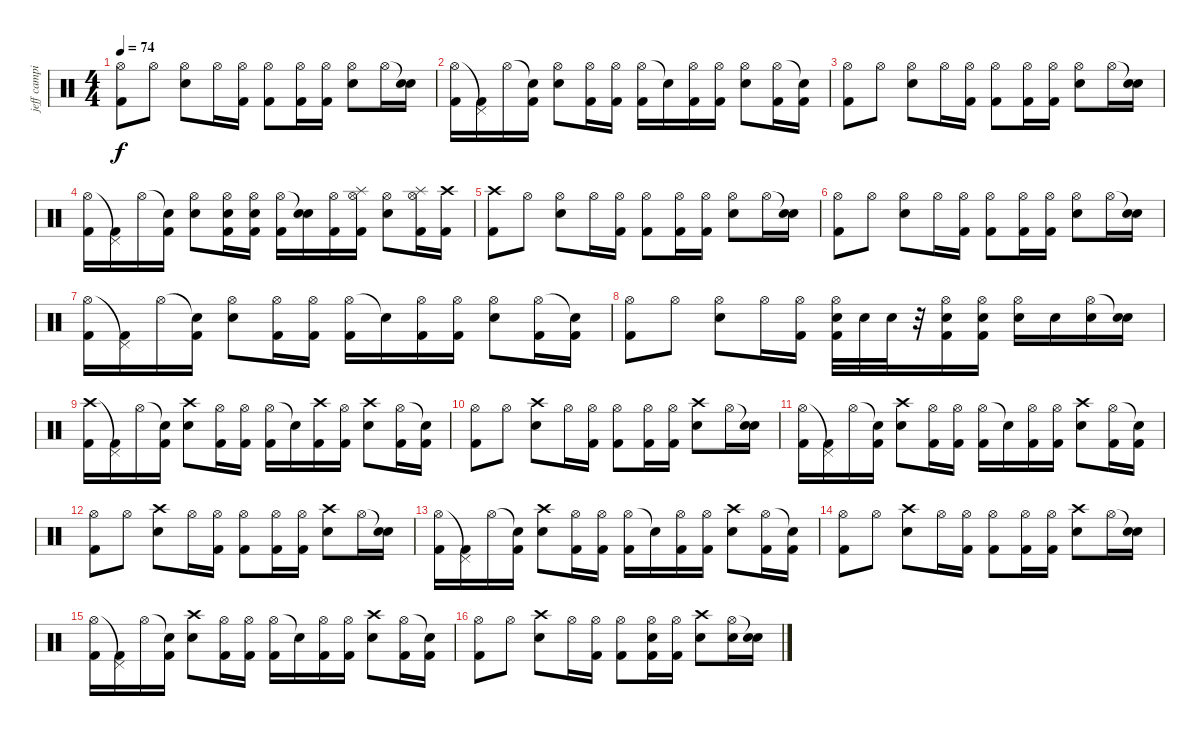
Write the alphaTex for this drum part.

\track ("jeff campitelli" "jeff campi") {instrument percussion}
\staff {score}
\articulation defaults
\ts (4 4)
\tempo 74
\clef neutral
\ks c
("Hi-Hat (open)" "Kick (hit) 2").8{dy f} "Hi-Hat (open)".8 ("Hi-Hat (open)" "Electric Snare (hit)").8 "Hi-Hat (open)".16 ("Hi-Hat (open)" "Kick (hit) 2").16 ("Hi-Hat (open)" "Kick (hit) 2").8 ("Hi-Hat (open)" "Kick (hit) 2").16 ("Hi-Hat (open)" "Kick (hit) 2").16 ("Hi-Hat (open)" "Electric Snare (hit)").8 "Hi-Hat (open)".16 ("Snare (hit)"{t} "Electric Snare (hit)").16 |
("Hi-Hat (open)" "Kick (hit) 2").16 ("Pedal Hi-Hat (hit)"{t} "Kick (hit) 2").16 "Hi-Hat (open)".16 ("Snare (hit)"{t} "Kick (hit) 2").16 ("Hi-Hat (open)" "Electric Snare (hit)").8 ("Hi-Hat (open)" "Kick (hit) 2").16 ("Hi-Hat (open)" "Kick (hit) 2").16 ("Hi-Hat (open)" "Kick (hit) 2").16 "Snare (hit)"{t}.16 ("Hi-Hat (open)" "Kick (hit) 2").16 ("Hi-Hat (open)" "Kick (hit) 2").16 ("Hi-Hat (open)" "Electric Snare (hit)").8 ("Hi-Hat (open)" "Kick (hit) 2").16 ("Snare (hit)"{t} "Kick (hit) 2").16 |
("Hi-Hat (open)" "Kick (hit) 2").8 "Hi-Hat (open)".8 ("Hi-Hat (open)" "Electric Snare (hit)").8 "Hi-Hat (open)".16 ("Hi-Hat (open)" "Kick (hit) 2").16 ("Hi-Hat (open)" "Kick (hit) 2").8 ("Hi-Hat (open)" "Kick (hit) 2").16 ("Hi-Hat (open)" "Kick (hit) 2").16 ("Hi-Hat (open)" "Electric Snare (hit)").8 "Hi-Hat (open)".16 ("Snare (hit)"{t} "Electric Snare (hit)").16 |
("Hi-Hat (open)" "Kick (hit) 2").16 ("Pedal Hi-Hat (hit)"{t} "Kick (hit) 2").16 "Hi-Hat (open)".16 ("Snare (hit)"{t} "Kick (hit) 2").16 ("Hi-Hat (open)" "Electric Snare (hit)").8 ("Hi-Hat (open)" "Electric Snare (hit)" "Kick (hit) 2").16 ("Hi-Hat (open)" "Electric Snare (hit)" "Kick (hit) 2").16 ("Hi-Hat (open)" "Kick (hit) 2").16 ("Snare (hit)"{t} "Snare (hit) 2").16 ("Hi-Hat (open)" "Kick (hit) 2").16 ("Hi-Hat (open)" "Splash (hit)" "Kick (hit) 2").16 ("Hi-Hat (open)" "Electric Snare (hit)").8 ("Hi-Hat (open)" "Splash (hit)" "Kick (hit) 2").16 ("Crash high (hit)" "Kick (hit) 2").16 |
("Crash high (hit)" "Kick (hit) 2").8 "Hi-Hat (open)".8 ("Hi-Hat (open)" "Electric Snare (hit)").8 "Hi-Hat (open)".16 ("Hi-Hat (open)" "Kick (hit) 2").16 ("Hi-Hat (open)" "Kick (hit) 2").8 ("Hi-Hat (open)" "Kick (hit) 2").16 ("Hi-Hat (open)" "Kick (hit) 2").16 ("Hi-Hat (open)" "Electric Snare (hit)").8 "Hi-Hat (open)".16 ("Snare (hit)"{t} "Electric Snare (hit)").16 |
("Hi-Hat (open)" "Kick (hit) 2").8 "Hi-Hat (open)".8 ("Hi-Hat (open)" "Electric Snare (hit)").8 "Hi-Hat (open)".16 ("Hi-Hat (open)" "Kick (hit) 2").16 ("Hi-Hat (open)" "Kick (hit) 2").8 ("Hi-Hat (open)" "Kick (hit) 2").16 ("Hi-Hat (open)" "Kick (hit) 2").16 ("Hi-Hat (open)" "Electric Snare (hit)").8 "Hi-Hat (open)".16 ("Snare (hit)"{t} "Electric Snare (hit)").16 |
("Hi-Hat (open)" "Kick (hit) 2").16 ("Pedal Hi-Hat (hit)"{t} "Kick (hit) 2").16 "Hi-Hat (open)".16 ("Snare (hit)"{t} "Kick (hit) 2").16 ("Hi-Hat (open)" "Electric Snare (hit)").8 ("Hi-Hat (open)" "Kick (hit) 2").16 ("Hi-Hat (open)" "Kick (hit) 2").16 ("Hi-Hat (open)" "Kick (hit) 2").16 "Snare (hit)"{t}.16 ("Hi-Hat (open)" "Kick (hit) 2").16 ("Hi-Hat (open)" "Kick (hit) 2").16 ("Hi-Hat (open)" "Electric Snare (hit)").8 ("Hi-Hat (open)" "Kick (hit) 2").16 ("Snare (hit)"{t} "Kick (hit) 2").16 |
("Hi-Hat (open)" "Kick (hit) 2").8 "Hi-Hat (open)".8 ("Hi-Hat (open)" "Electric Snare (hit)").8 "Hi-Hat (open)".16 ("Hi-Hat (open)" "Kick (hit) 2").16 ("Hi-Hat (open)" "Snare (hit) 2" "Kick (hit) 2").32 "Snare (hit) 2".32 "Snare (hit) 2".32 r.32 ("Hi-Hat (open)" "Electric Snare (hit)" "Kick (hit) 2").16 ("Hi-Hat (open)" "Snare (hit) 2" "Kick (hit) 2").16 ("Hi-Hat (open)" "Electric Snare (hit)").16 "Electric Snare (hit)".16 ("Hi-Hat (open)" "Electric Snare (hit)").16 ("Snare (hit)"{t} "Electric Snare (hit)").16 |
("Crash high (hit)" "Kick (hit) 2").16 ("Pedal Hi-Hat (hit)"{t} "Kick (hit) 2").16 "Hi-Hat (open)".16 ("Snare (hit)"{t} "Kick (hit) 2").16 ("Crash high (hit)" "Electric Snare (hit)").8 ("Hi-Hat (open)" "Kick (hit) 2").16 ("Hi-Hat (open)" "Kick (hit) 2").16 ("Hi-Hat (open)" "Kick (hit) 2").16 "Snare (hit)"{t}.16 ("Crash high (hit)" "Kick (hit) 2").16 ("Hi-Hat (open)" "Kick (hit) 2").16 ("Crash high (hit)" "Electric Snare (hit)").8 ("Hi-Hat (open)" "Kick (hit) 2").16 ("Snare (hit)"{t} "Kick (hit) 2").16 |
("Hi-Hat (open)" "Kick (hit) 2").8 "Hi-Hat (open)".8 ("Crash high (hit)" "Electric Snare (hit)").8 "Hi-Hat (open)".16 ("Hi-Hat (open)" "Kick (hit) 2").16 ("Hi-Hat (open)" "Kick (hit) 2").8 ("Hi-Hat (open)" "Kick (hit) 2").16 ("Hi-Hat (open)" "Kick (hit) 2").16 ("Crash high (hit)" "Electric Snare (hit)").8 "Hi-Hat (open)".16 ("Snare (hit)"{t} "Electric Snare (hit)").16 |
("Hi-Hat (open)" "Kick (hit) 2").16 ("Pedal Hi-Hat (hit)"{t} "Kick (hit) 2").16 "Hi-Hat (open)".16 ("Snare (hit)"{t} "Kick (hit) 2").16 ("Crash high (hit)" "Electric Snare (hit)").8 ("Hi-Hat (open)" "Kick (hit) 2").16 ("Hi-Hat (open)" "Kick (hit) 2").16 ("Hi-Hat (open)" "Kick (hit) 2").16 "Snare (hit)"{t}.16 ("Hi-Hat (open)" "Kick (hit) 2").16 ("Hi-Hat (open)" "Kick (hit) 2").16 ("Crash high (hit)" "Electric Snare (hit)").8 ("Hi-Hat (open)" "Kick (hit) 2").16 ("Snare (hit)"{t} "Kick (hit) 2").16 |
("Hi-Hat (open)" "Kick (hit) 2").8 "Hi-Hat (open)".8 ("Crash high (hit)" "Electric Snare (hit)").8 "Hi-Hat (open)".16 ("Hi-Hat (open)" "Kick (hit) 2").16 ("Hi-Hat (open)" "Kick (hit) 2").8 ("Hi-Hat (open)" "Kick (hit) 2").16 ("Hi-Hat (open)" "Kick (hit) 2").16 ("Crash high (hit)" "Electric Snare (hit)").8 "Hi-Hat (open)".16 ("Snare (hit)"{t} "Electric Snare (hit)").16 |
("Hi-Hat (open)" "Kick (hit) 2").16 ("Pedal Hi-Hat (hit)"{t} "Kick (hit) 2").16 "Hi-Hat (open)".16 ("Snare (hit)"{t} "Kick (hit) 2").16 ("Crash high (hit)" "Electric Snare (hit)").8 ("Hi-Hat (open)" "Kick (hit) 2").16 ("Hi-Hat (open)" "Kick (hit) 2").16 ("Hi-Hat (open)" "Kick (hit) 2").16 "Snare (hit)"{t}.16 ("Hi-Hat (open)" "Kick (hit) 2").16 ("Hi-Hat (open)" "Kick (hit) 2").16 ("Crash high (hit)" "Electric Snare (hit)").8 ("Hi-Hat (open)" "Kick (hit) 2").16 ("Snare (hit)"{t} "Kick (hit) 2").16 |
("Hi-Hat (open)" "Kick (hit) 2").8 "Hi-Hat (open)".8 ("Crash high (hit)" "Electric Snare (hit)").8 "Hi-Hat (open)".16 ("Hi-Hat (open)" "Kick (hit) 2").16 ("Hi-Hat (open)" "Kick (hit) 2").8 ("Hi-Hat (open)" "Kick (hit) 2").16 ("Hi-Hat (open)" "Kick (hit) 2").16 ("Crash high (hit)" "Electric Snare (hit)").8 "Hi-Hat (open)".16 ("Snare (hit)"{t} "Electric Snare (hit)").16 |
("Hi-Hat (open)" "Kick (hit) 2").16 ("Pedal Hi-Hat (hit)"{t} "Kick (hit) 2").16 "Hi-Hat (open)".16 ("Snare (hit)"{t} "Kick (hit) 2").16 ("Crash high (hit)" "Electric Snare (hit)").8 ("Hi-Hat (open)" "Kick (hit) 2").16 ("Hi-Hat (open)" "Kick (hit) 2").16 ("Hi-Hat (open)" "Kick (hit) 2").16 "Snare (hit)"{t}.16 ("Hi-Hat (open)" "Kick (hit) 2").16 ("Hi-Hat (open)" "Kick (hit) 2").16 ("Crash high (hit)" "Electric Snare (hit)").8 ("Hi-Hat (open)" "Kick (hit) 2").16 ("Snare (hit)"{t} "Kick (hit) 2").16 |
("Hi-Hat (open)" "Kick (hit) 2").8 "Hi-Hat (open)".8 ("Crash high (hit)" "Electric Snare (hit)").8 "Hi-Hat (open)".16 ("Hi-Hat (open)" "Kick (hit) 2").16 ("Hi-Hat (open)" "Kick (hit) 2").8 ("Hi-Hat (open)" "Electric Snare (hit)" "Kick (hit) 2").16 ("Hi-Hat (open)" "Kick (hit) 2").16 ("Crash high (hit)" "Electric Snare (hit)").8 ("Hi-Hat (open)" "Metronome (bell)").16 ("Snare (hit)"{t} "Metronome (bell)").16
